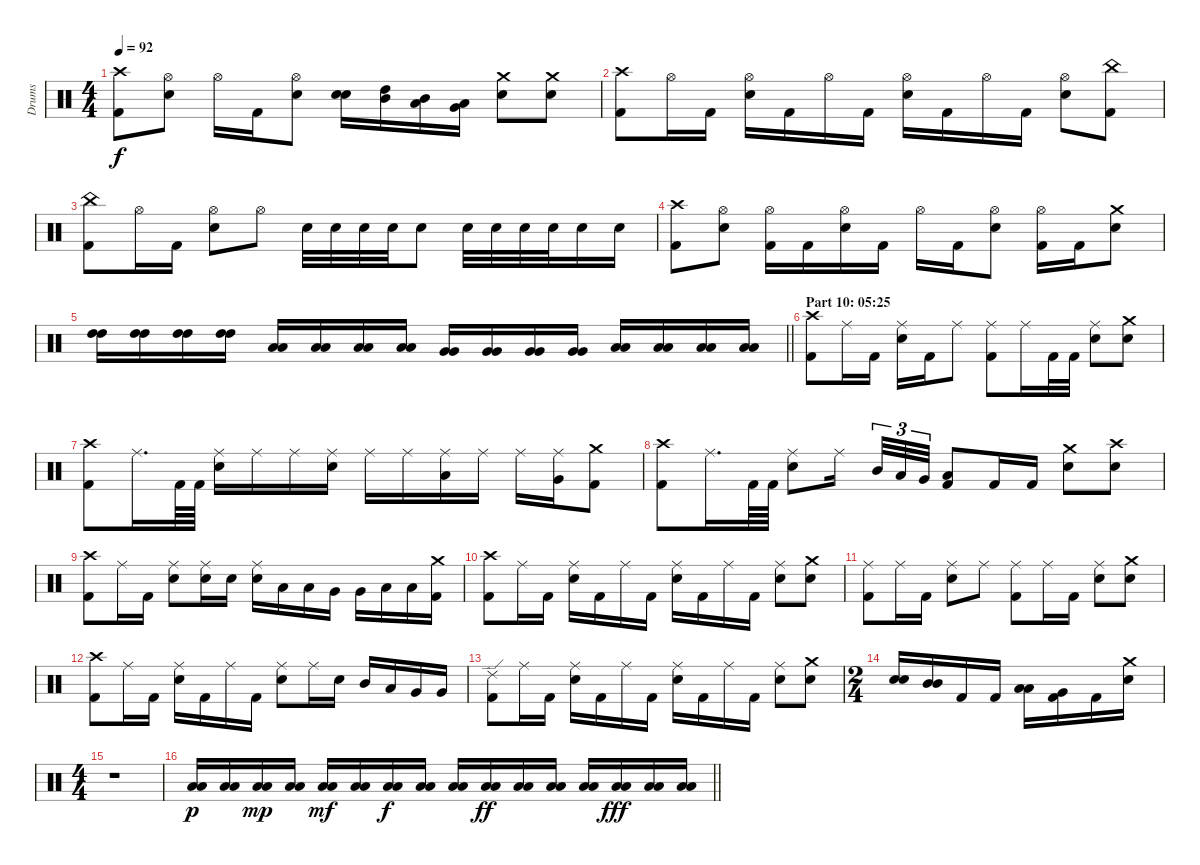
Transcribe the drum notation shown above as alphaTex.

\track ("Drums" "Drums") {instrument percussion}
\staff {score}
\articulation defaults
\ts (4 4)
\tempo 92
\clef neutral
\ks c
("Crash high (hit)" "Kick (hit) 2").8{dy f} ("Hi-Hat (open)" "Electric Snare (hit)").8 "Hi-Hat (open)".16 "Kick (hit) 2".16 ("Hi-Hat (open)" "Electric Snare (hit)").8 ("Electric Snare (hit)" "Electric Snare (hit)").16{bd 30} ("High Tom (hit)" "Mid Tom (hit)").16{bd 30} ("Mid Tom (hit)" "Low Tom (hit)").16{bd 30} ("Low Tom (hit)" "Very Low Tom (hit)").16{bd 30} ("Crash medium (hit)" "Electric Snare (hit)").8 ("Crash medium (hit)" "Electric Snare (hit)").8 |
("Crash high (hit)" "Kick (hit) 2").8 "Hi-Hat (open)".16 "Kick (hit) 2".16 ("Hi-Hat (open)" "Electric Snare (hit)").16 "Kick (hit) 2".16 "Hi-Hat (open)".16 "Kick (hit) 2".16 ("Hi-Hat (open)" "Electric Snare (hit)").16 "Kick (hit) 2".16 "Hi-Hat (open)".16 "Kick (hit) 2".16 ("Hi-Hat (open)" "Electric Snare (hit)").8 ("China (hit)" "Kick (hit) 2").8 |
("China (hit)" "Kick (hit) 2").8 "Hi-Hat (open)".16 "Kick (hit) 2".16 ("Hi-Hat (open)" "Electric Snare (hit)").8 "Hi-Hat (open)".8 "Electric Snare (hit)".32 "Electric Snare (hit)".32 "Electric Snare (hit)".32 "Electric Snare (hit)".32 "Electric Snare (hit)".8 "Electric Snare (hit)".32 "Electric Snare (hit)".32 "Electric Snare (hit)".32 "Electric Snare (hit)".32 "Electric Snare (hit)".16 "Electric Snare (hit)".16 |
("Crash high (hit)" "Kick (hit) 2").8 ("Hi-Hat (open)" "Electric Snare (hit)").8 ("Hi-Hat (open)" "Kick (hit) 2").16 "Kick (hit) 2".16 ("Hi-Hat (open)" "Electric Snare (hit)").16 "Kick (hit) 2".16 "Hi-Hat (open)".16 "Kick (hit) 2".16 ("Hi-Hat (open)" "Electric Snare (hit)").8 ("Hi-Hat (open)" "Kick (hit) 2").16 "Kick (hit) 2".16 ("Crash medium (hit)" "Electric Snare (hit)").8 |
\barLineRight lightlight
("High Tom (hit)" "High Tom (hit)").16{bd 30} ("High Tom (hit)" "High Tom (hit)").16 ("High Tom (hit)" "High Tom (hit)").16 ("High Tom (hit)" "High Tom (hit)").16 ("Low Tom (hit)" "Low Tom (hit)").16{bd 30} ("Low Tom (hit)" "Low Tom (hit)").16 ("Low Tom (hit)" "Low Tom (hit)").16 ("Low Tom (hit)" "Low Tom (hit)").16 ("Very Low Tom (hit)" "Very Low Tom (hit)").16{bd 30} ("Very Low Tom (hit)" "Very Low Tom (hit)").16 ("Very Low Tom (hit)" "Very Low Tom (hit)").16 ("Very Low Tom (hit)" "Very Low Tom (hit)").16 ("Low Floor Tom (hit)" "Low Floor Tom (hit)").16{bd 30} ("Low Floor Tom (hit)" "Low Floor Tom (hit)").16 ("Low Floor Tom (hit)" "Low Floor Tom (hit)").16 ("Low Floor Tom (hit)" "Low Floor Tom (hit)").16 |
\section ("" "Part 10: 05:25")
("Crash high (hit)" "Kick (hit) 2").8 "Ride (middle)".16 "Kick (hit) 2".16 ("Ride (middle)" "Electric Snare (hit)").16 "Kick (hit) 2".16 "Ride (middle)".8 ("Ride (middle)" "Kick (hit) 2").8 "Ride (middle)".16 "Kick (hit) 2".32 "Kick (hit) 2".32 ("Ride (middle)" "Electric Snare (hit)").8 ("Crash medium (hit)" "Electric Snare (hit)").8 |
("Crash high (hit)" "Kick (hit) 2").8 "Ride (middle)".16{d} "Kick (hit) 2".64 "Kick (hit) 2".64 ("Ride (middle)" "Electric Snare (hit)").16 "Ride (middle)".16 "Ride (middle)".16 ("Ride (middle)" "Electric Snare (hit)").16 "Ride (middle)".16 "Ride (middle)".16 ("Ride (middle)" "Low Tom (hit)").16 "Ride (middle)".16 "Ride (middle)".16 ("Ride (middle)" "Very Low Tom (hit)").16 ("Crash medium (hit)" "Kick (hit) 2").8 |
("Crash high (hit)" "Kick (hit) 2").8 "Ride (middle)".16{d} "Kick (hit) 2".64 "Kick (hit) 2".64 ("Ride (middle)" "Electric Snare (hit)").8 "Ride (middle)".16{beam splitsecondary} "Mid Tom (hit)".32{tu (3 2)} "Low Tom (hit)".32{tu (3 2)} "Very Low Tom (hit)".32{tu (3 2)} ("Low Floor Tom (hit)" "Kick (hit) 2").8 "Kick (hit) 2".16 "Kick (hit) 2".16 ("Crash medium (hit)" "Electric Snare (hit)").8 ("Crash high (hit)" "Electric Snare (hit)").8 |
("Crash high (hit)" "Kick (hit) 2").8 "Ride (middle)".16 "Kick (hit) 2".16 ("Ride (middle)" "Electric Snare (hit)").8 ("Ride (middle)" "Electric Snare (hit)").16 "Electric Snare (hit)".16 ("Ride (middle)" "Electric Snare (hit)").16 "Low Tom (hit)".16 "Low Tom (hit)".16 "Very Low Tom (hit)".16 "Very Low Tom (hit)".16 "Low Floor Tom (hit)".16 "Low Floor Tom (hit)".16 ("Crash medium (hit)" "Kick (hit) 2").16 |
("Crash high (hit)" "Kick (hit) 2").8 "Ride (middle)".16 "Kick (hit) 2".16 ("Ride (middle)" "Electric Snare (hit)").16 "Kick (hit) 2".16 "Ride (middle)".16 "Kick (hit) 2".16 ("Ride (middle)" "Electric Snare (hit)").16 "Kick (hit) 2".16 "Ride (middle)".16 "Kick (hit) 2".16 ("Ride (middle)" "Electric Snare (hit)").8 ("Crash medium (hit)" "Electric Snare (hit)").8 |
("Ride (middle)" "Kick (hit) 2").8 "Ride (middle)".16 "Kick (hit) 2".16 ("Ride (middle)" "Electric Snare (hit)").8 "Ride (middle)".8 ("Ride (middle)" "Kick (hit) 2").8 "Ride (middle)".16 "Kick (hit) 2".16 ("Ride (middle)" "Electric Snare (hit)").8 ("Crash medium (hit)" "Electric Snare (hit)").8 |
("Crash high (hit)" "Kick (hit) 2").8 "Ride (middle)".16 "Kick (hit) 2".16 ("Ride (middle)" "Electric Snare (hit)").16 "Kick (hit) 2".16 "Ride (middle)".16 "Kick (hit) 2".16 ("Ride (middle)" "Electric Snare (hit)").8 "Ride (middle)".16 "Electric Snare (hit)".16 "Mid Tom (hit)".16 "Low Tom (hit)".16 "Very Low Tom (hit)".16 "Very Low Tom (hit)".16 |
("Ride (edge) 2" "Kick (hit) 2").8 "Ride (middle)".16 "Kick (hit) 2".16 ("Ride (middle)" "Electric Snare (hit)").16 "Kick (hit) 2".16 "Ride (middle)".16 "Kick (hit) 2".16 ("Ride (middle)" "Electric Snare (hit)").16 "Kick (hit) 2".16 "Ride (middle)".16 "Kick (hit) 2".16 ("Ride (middle)" "Electric Snare (hit)").8 ("Crash medium (hit)" "Electric Snare (hit)").8 |
\ts (2 4)
("Electric Snare (hit)" "Electric Snare (hit)").16{bd 60} ("Mid Tom (hit)" "Mid Tom (hit)").16{bd 120} "Kick (hit) 2".16 "Kick (hit) 2".16 ("Low Tom (hit)" "Low Tom (hit)").16{bd 30} ("Very Low Tom (hit)" "Kick (hit) 2").16 "Kick (hit) 2".16 ("Crash medium (hit)" "Electric Snare (hit)").16 |
\ts (4 4)
r.1 |
\barLineRight lightlight
("Low Tom (hit)" "Low Floor Tom (hit)").16{bd 30 dy p} ("Low Tom (hit)" "Low Floor Tom (hit)").16{bd 30} ("Low Tom (hit)" "Low Floor Tom (hit)").16{bd 30 dy mp} ("Low Tom (hit)" "Low Floor Tom (hit)").16{bd 30} ("Low Tom (hit)" "Low Floor Tom (hit)").16{bd 30 dy mf} ("Low Tom (hit)" "Low Floor Tom (hit)").16{bd 30} ("Low Tom (hit)" "Low Floor Tom (hit)").16{bd 30 dy f} ("Low Tom (hit)" "Low Floor Tom (hit)").16{bd 30} ("Low Tom (hit)" "Low Floor Tom (hit)").16{bd 30} ("Low Tom (hit)" "Low Floor Tom (hit)").16{bd 30 dy ff} ("Low Tom (hit)" "Low Floor Tom (hit)").16{bd 30} ("Low Tom (hit)" "Low Floor Tom (hit)").16{bd 30} ("Low Tom (hit)" "Low Floor Tom (hit)").16{bd 30} ("Low Tom (hit)" "Low Floor Tom (hit)").16{bd 30 dy fff} ("Low Tom (hit)" "Low Floor Tom (hit)").16{bd 30} ("Low Tom (hit)" "Low Floor Tom (hit)").16{bd 30}
